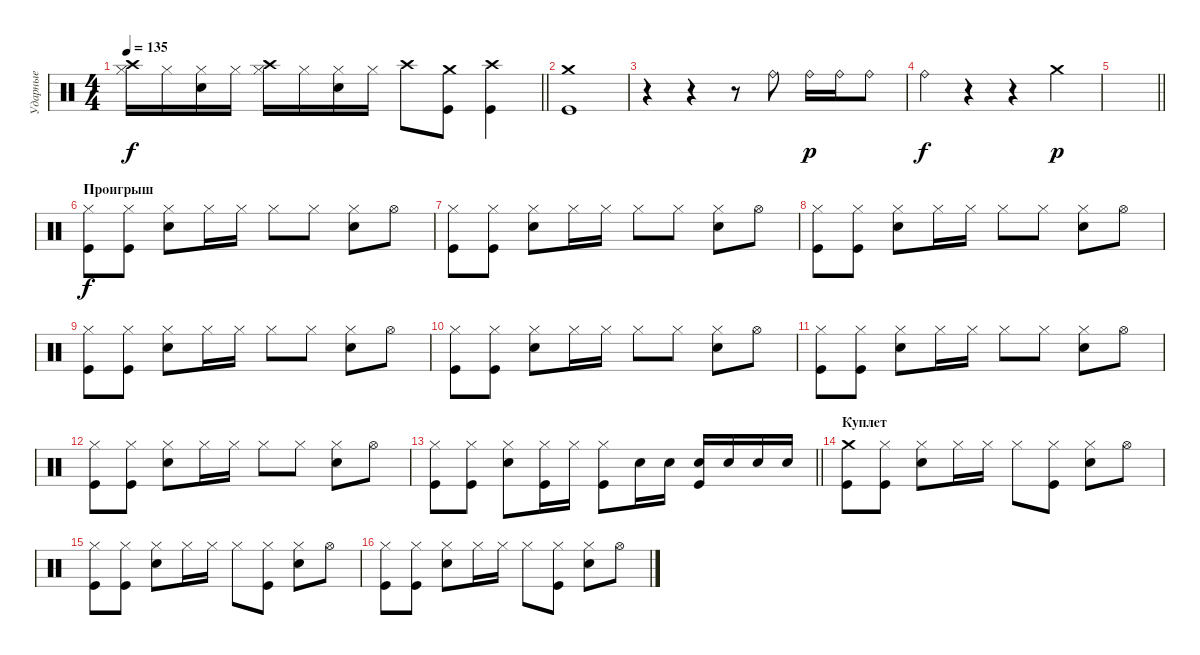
\track ("Ударные" "Ударные") {instrument percussion}
\staff {score}
\articulation defaults
\ts (4 4)
\tempo 135
\clef neutral
\barLineRight lightlight
\ks c
("Crash high (hit)" "Hi-Hat (closed)").16{dy f} "Hi-Hat (closed)".16 ("Hi-Hat (closed)" "Electric Snare (hit)").16 "Hi-Hat (closed)".16 ("Crash high (hit)" "Hi-Hat (closed)").16 "Hi-Hat (closed)".16 ("Hi-Hat (closed)" "Electric Snare (hit)").16 "Hi-Hat (closed)".16 "Crash high (hit)".8 ("Crash medium (hit)" "Kick (hit)").8 ("Crash high (hit)" "Kick (hit)").4 |
\section ("" " ")
("Crash medium (hit)" "Kick (hit)").1 |
r.4 r.4 r.8 "Ride (bell)".8 "Ride (bell)".16{dy p} "Ride (bell)".16 "Ride (bell)".8 |
"Ride (bell)".4{dy f} r.4 r.4 "Crash medium (hit)".4{dy p} |
\barLineRight lightlight
|
\section ("" "Проигрыш")
("Hi-Hat (closed)" "Kick (hit)").8{dy f} ("Hi-Hat (closed)" "Kick (hit)").8 ("Hi-Hat (closed)" "Electric Snare (hit)").8 "Hi-Hat (closed)".16 "Hi-Hat (closed)".16 "Hi-Hat (closed)".8 "Hi-Hat (closed)".8 ("Hi-Hat (closed)" "Electric Snare (hit)").8 "Hi-Hat (open)".8 |
("Hi-Hat (closed)" "Kick (hit)").8 ("Hi-Hat (closed)" "Kick (hit)").8 ("Hi-Hat (closed)" "Electric Snare (hit)").8 "Hi-Hat (closed)".16 "Hi-Hat (closed)".16 "Hi-Hat (closed)".8 "Hi-Hat (closed)".8 ("Hi-Hat (closed)" "Electric Snare (hit)").8 "Hi-Hat (open)".8 |
("Hi-Hat (closed)" "Kick (hit)").8 ("Hi-Hat (closed)" "Kick (hit)").8 ("Hi-Hat (closed)" "Electric Snare (hit)").8 "Hi-Hat (closed)".16 "Hi-Hat (closed)".16 "Hi-Hat (closed)".8 "Hi-Hat (closed)".8 ("Hi-Hat (closed)" "Electric Snare (hit)").8 "Hi-Hat (open)".8 |
("Hi-Hat (closed)" "Kick (hit)").8 ("Hi-Hat (closed)" "Kick (hit)").8 ("Hi-Hat (closed)" "Electric Snare (hit)").8 "Hi-Hat (closed)".16 "Hi-Hat (closed)".16 "Hi-Hat (closed)".8 "Hi-Hat (closed)".8 ("Hi-Hat (closed)" "Electric Snare (hit)").8 "Hi-Hat (open)".8 |
("Hi-Hat (closed)" "Kick (hit)").8 ("Hi-Hat (closed)" "Kick (hit)").8 ("Hi-Hat (closed)" "Electric Snare (hit)").8 "Hi-Hat (closed)".16 "Hi-Hat (closed)".16 "Hi-Hat (closed)".8 "Hi-Hat (closed)".8 ("Hi-Hat (closed)" "Electric Snare (hit)").8 "Hi-Hat (open)".8 |
("Hi-Hat (closed)" "Kick (hit)").8 ("Hi-Hat (closed)" "Kick (hit)").8 ("Hi-Hat (closed)" "Electric Snare (hit)").8 "Hi-Hat (closed)".16 "Hi-Hat (closed)".16 "Hi-Hat (closed)".8 "Hi-Hat (closed)".8 ("Hi-Hat (closed)" "Electric Snare (hit)").8 "Hi-Hat (open)".8 |
("Hi-Hat (closed)" "Kick (hit)").8 ("Hi-Hat (closed)" "Kick (hit)").8 ("Hi-Hat (closed)" "Electric Snare (hit)").8 "Hi-Hat (closed)".16 "Hi-Hat (closed)".16 "Hi-Hat (closed)".8 "Hi-Hat (closed)".8 ("Hi-Hat (closed)" "Electric Snare (hit)").8 "Hi-Hat (open)".8 |
\barLineRight lightlight
("Hi-Hat (closed)" "Kick (hit)").8 ("Hi-Hat (closed)" "Kick (hit)").8 ("Hi-Hat (closed)" "Electric Snare (hit)").8 ("Hi-Hat (closed)" "Kick (hit)").16 "Hi-Hat (closed)".16 ("Hi-Hat (closed)" "Kick (hit)").8 "Electric Snare (hit)".16 "Electric Snare (hit)".16 ("Electric Snare (hit)" "Kick (hit)").16 "Electric Snare (hit)".16 "Electric Snare (hit)".16 "Electric Snare (hit)".16 |
\section ("" "Куплет")
("Crash medium (hit)" "Kick (hit)").8 ("Hi-Hat (closed)" "Kick (hit)").8 ("Hi-Hat (closed)" "Electric Snare (hit)").8 "Hi-Hat (closed)".16 "Hi-Hat (closed)".16 "Hi-Hat (closed)".8 ("Hi-Hat (closed)" "Kick (hit)").8 ("Hi-Hat (closed)" "Electric Snare (hit)").8 "Hi-Hat (open)".8 |
("Hi-Hat (closed)" "Kick (hit)").8 ("Hi-Hat (closed)" "Kick (hit)").8 ("Hi-Hat (closed)" "Electric Snare (hit)").8 "Hi-Hat (closed)".16 "Hi-Hat (closed)".16 "Hi-Hat (closed)".8 ("Hi-Hat (closed)" "Kick (hit)").8 ("Hi-Hat (closed)" "Electric Snare (hit)").8 "Hi-Hat (open)".8 |
("Hi-Hat (closed)" "Kick (hit)").8 ("Hi-Hat (closed)" "Kick (hit)").8 ("Hi-Hat (closed)" "Electric Snare (hit)").8 "Hi-Hat (closed)".16 "Hi-Hat (closed)".16 "Hi-Hat (closed)".8 ("Hi-Hat (closed)" "Kick (hit)").8 ("Hi-Hat (closed)" "Electric Snare (hit)").8 "Hi-Hat (open)".8
